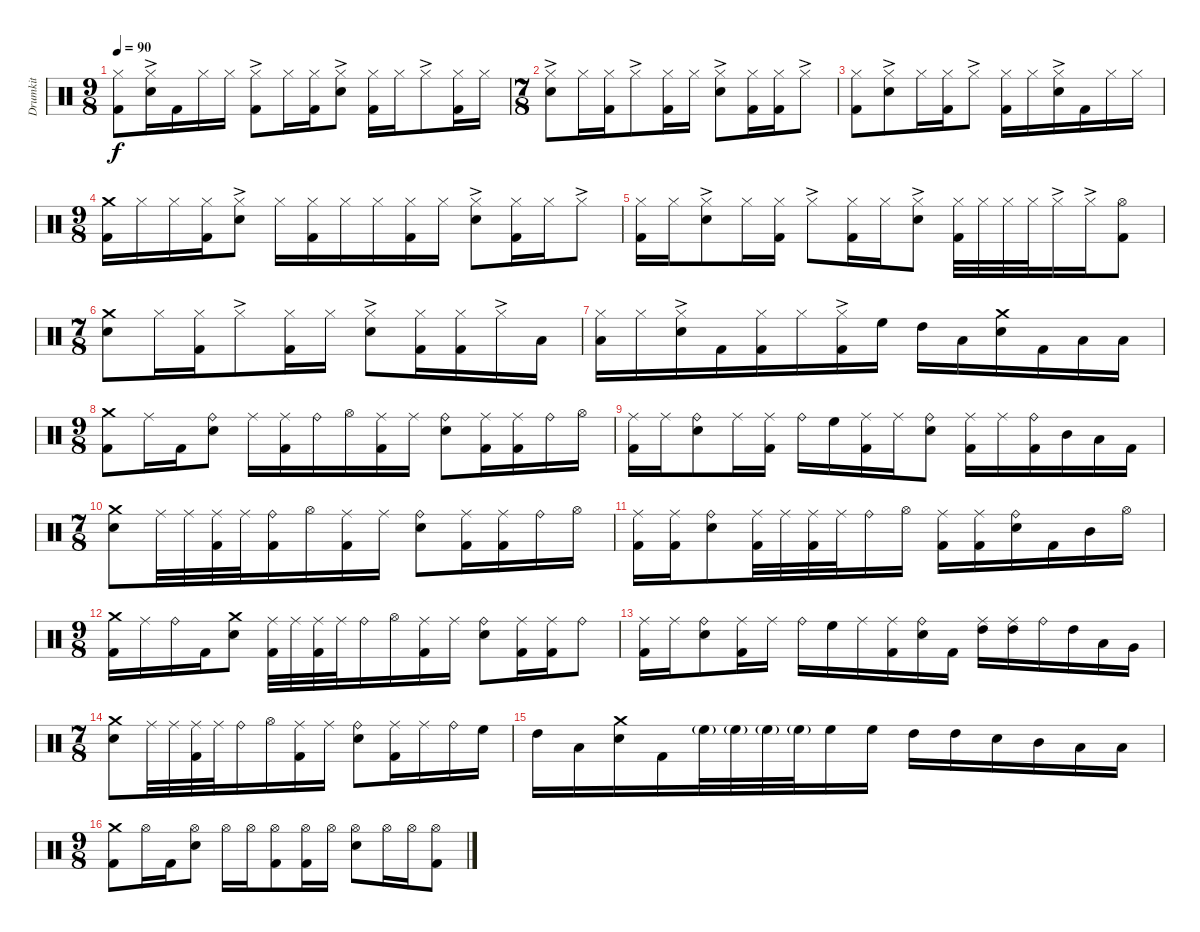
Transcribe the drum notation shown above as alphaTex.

\track ("Drumkit" "Drumkit") {instrument percussion}
\staff {score}
\articulation defaults
\ts (9 8)
\tempo 90
\clef neutral
\ks c
("Hi-Hat (closed)" "Kick (hit) 2").8{dy f} ("Hi-Hat (closed)"{ac} "Snare (hit) 2").16 "Kick (hit) 2".16 "Hi-Hat (closed)".16 "Hi-Hat (closed)".16 ("Hi-Hat (closed)"{ac} "Kick (hit) 2").8 "Hi-Hat (closed)".16 ("Hi-Hat (closed)" "Kick (hit) 2").16 ("Hi-Hat (closed)"{ac} "Snare (hit) 2").8 ("Hi-Hat (closed)" "Kick (hit) 2").16 "Hi-Hat (closed)".16 "Hi-Hat (closed)"{ac}.8 ("Hi-Hat (closed)" "Kick (hit) 2").16 "Hi-Hat (closed)".16 |
\ts (7 8)
("Hi-Hat (closed)"{ac} "Snare (hit) 2").8 "Hi-Hat (closed)".16 ("Hi-Hat (closed)" "Kick (hit) 2").16 "Hi-Hat (closed)"{ac}.8 ("Hi-Hat (closed)" "Kick (hit) 2").16 "Hi-Hat (closed)".16 ("Hi-Hat (closed)"{ac} "Snare (hit) 2").8 ("Hi-Hat (closed)" "Kick (hit) 2").16 ("Hi-Hat (closed)" "Kick (hit) 2").16 "Hi-Hat (closed)"{ac}.8 |
("Hi-Hat (closed)" "Kick (hit) 2").8 ("Hi-Hat (closed)"{ac} "Snare (hit) 2").8 "Hi-Hat (closed)".16 ("Hi-Hat (closed)" "Kick (hit) 2").16 "Hi-Hat (closed)"{ac}.8 ("Hi-Hat (closed)" "Kick (hit) 2").16 "Hi-Hat (closed)".16 ("Hi-Hat (closed)"{ac} "Snare (hit) 2").16 "Kick (hit) 2".16 "Hi-Hat (closed)".16 "Hi-Hat (closed)".16 |
\ts (9 8)
("Crash medium (hit)" "Kick (hit) 2").16 "Hi-Hat (closed)".16 "Hi-Hat (closed)".16 ("Hi-Hat (closed)" "Kick (hit) 2").16 ("Hi-Hat (closed)"{ac} "Snare (hit) 2").8 "Hi-Hat (closed)".16 ("Hi-Hat (closed)" "Kick (hit) 2").16 "Hi-Hat (closed)".16 "Hi-Hat (closed)".16 ("Hi-Hat (closed)" "Kick (hit) 2").16 "Hi-Hat (closed)".16 ("Hi-Hat (closed)"{ac} "Snare (hit) 2").8 ("Hi-Hat (closed)" "Kick (hit) 2").16 "Hi-Hat (closed)".16 "Hi-Hat (closed)"{ac}.8 |
("Hi-Hat (closed)" "Kick (hit) 2").16 "Hi-Hat (closed)".16 ("Hi-Hat (closed)"{ac} "Snare (hit) 2").8 "Hi-Hat (closed)".16 ("Hi-Hat (closed)" "Kick (hit) 2").16 "Hi-Hat (closed)"{ac}.8 ("Hi-Hat (closed)" "Kick (hit) 2").16 "Hi-Hat (closed)".16 ("Hi-Hat (closed)"{ac} "Snare (hit) 2").8 ("Hi-Hat (closed)" "Kick (hit) 2").32 "Hi-Hat (closed)".32 "Hi-Hat (closed)".32 "Hi-Hat (closed)".32 "Hi-Hat (closed)"{ac}.16 "Hi-Hat (closed)"{ac}.16 ("Hi-Hat (open)" "Kick (hit) 2").8 |
\ts (7 8)
("Crash medium (hit)" "Snare (hit) 2").8 "Hi-Hat (closed)".16 ("Hi-Hat (closed)" "Kick (hit) 2").16 "Hi-Hat (closed)"{ac}.8 ("Hi-Hat (closed)" "Kick (hit) 2").16 "Hi-Hat (closed)".16 ("Hi-Hat (closed)"{ac} "Snare (hit) 2").8 ("Hi-Hat (closed)" "Kick (hit) 2").16 ("Hi-Hat (closed)" "Kick (hit) 2").16 "Hi-Hat (closed)"{ac}.16 "Low Tom (hit)".16 |
("Hi-Hat (closed)" "Low Tom (hit)").16 "Hi-Hat (closed)".16 ("Hi-Hat (closed)"{ac} "Snare (hit) 2").16 "Kick (hit) 2".16 ("Hi-Hat (closed)" "Kick (hit) 2").16 "Hi-Hat (closed)".16 ("Hi-Hat (closed)"{ac} "Kick (hit) 2").16 "High Floor Tom (hit)".16 "High Tom (hit)".16 "Low Tom (hit)".16 ("Crash medium (hit)" "Snare (hit) 2").16 "Kick (hit) 2".16 "Low Tom (hit)".16 "Low Tom (hit)".16 |
\ts (9 8)
("Crash medium (hit)" "Kick (hit) 2").8 "Ride (middle)".16 "Kick (hit) 2".16 ("Ride (bell)" "Snare (hit) 2").8 "Ride (middle)".16 ("Ride (middle)" "Kick (hit) 2").16 "Ride (bell)".16 "Hi-Hat (open)".16 ("Ride (middle)" "Kick (hit) 2").16 "Ride (middle)".16 ("Ride (bell)" "Snare (hit) 2").8 ("Ride (middle)" "Kick (hit) 2").16 ("Ride (middle)" "Kick (hit) 2").16 "Ride (bell)".16 "Hi-Hat (open)".16 |
("Ride (middle)" "Kick (hit) 2").16 "Ride (middle)".16 ("Ride (bell)" "Snare (hit) 2").8 "Ride (middle)".16 ("Ride (middle)" "Kick (hit) 2").16 "Ride (bell)".16 "High Floor Tom (hit)".16 ("Ride (middle)" "Kick (hit) 2").16 "Ride (middle)".16 ("Ride (bell)" "Snare (hit) 2").8 ("Ride (middle)" "Kick (hit) 2").16 "Ride (middle)".16 ("Ride (bell)" "Kick (hit) 2").16 "Mid Tom (hit)".16 "Low Tom (hit)".16 "Kick (hit) 2".16 |
\ts (7 8)
("Crash medium (hit)" "Snare (hit) 2").8 "Ride (middle)".32 "Ride (middle)".32 ("Ride (middle)" "Kick (hit) 2").32 "Ride (middle)".32 ("Ride (bell)" "Kick (hit) 2").16 "Hi-Hat (open)".16 ("Ride (middle)" "Kick (hit) 2").16 "Ride (middle)".16 ("Ride (bell)" "Snare (hit) 2").8 ("Ride (middle)" "Kick (hit) 2").16 ("Ride (middle)" "Kick (hit) 2").16 "Ride (bell)".16 "Hi-Hat (open)".16 |
("Ride (middle)" "Kick (hit) 2").16 ("Ride (middle)" "Kick (hit) 2").16 ("Ride (bell)" "Snare (hit) 2").8 ("Ride (middle)" "Kick (hit) 2").32 "Ride (middle)".32 ("Ride (middle)" "Kick (hit) 2").32 "Ride (middle)".32 "Ride (bell)".16 "Hi-Hat (open)".16 ("Ride (middle)" "Kick (hit) 2").16 ("Ride (middle)" "Kick (hit) 2").16 ("Ride (bell)" "Snare (hit) 2").16 "Kick (hit) 2".16 "Mid Tom (hit)".16 "Hi-Hat (open)".16 |
\ts (9 8)
("Crash medium (hit)" "Kick (hit) 2").16 "Ride (middle)".16 "Ride (bell)".16 "Kick (hit) 2".16 ("Crash medium (hit)" "Snare (hit) 2").8 ("Ride (middle)" "Kick (hit) 2").32 "Ride (middle)".32 ("Ride (middle)" "Kick (hit) 2").32 "Ride (middle)".32 "Ride (bell)".16 "Hi-Hat (open)".16 ("Ride (middle)" "Kick (hit) 2").16 "Ride (middle)".16 ("Ride (bell)" "Snare (hit) 2").8 ("Ride (middle)" "Kick (hit) 2").16 ("Ride (middle)" "Kick (hit) 2").16 "Ride (bell)".8 |
("Ride (middle)" "Kick (hit) 2").16 "Ride (middle)".16 ("Ride (bell)" "Snare (hit) 2").8 ("Ride (middle)" "Kick (hit) 2").16 "Ride (middle)".16 "Ride (bell)".16 "High Floor Tom (hit)".16 "Ride (middle)".16 ("Ride (middle)" "Kick (hit) 2").16 ("Ride (bell)" "Snare (hit) 2").16 "Kick (hit) 2".16 ("Ride (middle)" "High Tom (hit)").16 ("Ride (middle)" "High Tom (hit)").16 "Ride (bell)".16 "High Tom (hit)".16 "Low Tom (hit)".16 "Very Low Tom (hit)".16 |
\ts (7 8)
("Crash medium (hit)" "Snare (hit) 2").8 "Ride (middle)".32 "Ride (middle)".32 ("Ride (middle)" "Kick (hit) 2").32 "Ride (middle)".32 "Ride (bell)".16 "Hi-Hat (open)".16 ("Ride (middle)" "Kick (hit) 2").16 "Ride (middle)".16 ("Ride (bell)" "Snare (hit) 2").8 ("Ride (middle)" "Kick (hit) 2").16 "Ride (middle)".16 "Ride (bell)".16 "High Floor Tom (hit)".16 |
"High Tom (hit)".16 "Low Tom (hit)".16 ("Crash medium (hit)" "Snare (hit) 2").16 "Kick (hit) 2".16 "High Floor Tom (hit)"{g}.32 "High Floor Tom (hit)"{g}.32 "High Floor Tom (hit)"{g}.32 "High Floor Tom (hit)"{g}.32 "High Floor Tom (hit)".16 "High Floor Tom (hit)".16 "High Tom (hit)".16 "High Tom (hit)".16 "Snare (hit) 2".16 "Mid Tom (hit)".16 "Low Tom (hit)".16 "Low Tom (hit)".16 |
\ts (9 8)
("Crash medium (hit)" "Kick (hit) 2").8 "Hi-Hat (open)".16 "Kick (hit) 2".16 ("Hi-Hat (open)" "Snare (hit) 2").8 "Hi-Hat (open)".16 "Hi-Hat (open)".16 ("Hi-Hat (open)" "Kick (hit) 2").8 ("Hi-Hat (open)" "Kick (hit) 2").16 "Hi-Hat (open)".16 ("Hi-Hat (open)" "Snare (hit) 2").8 "Hi-Hat (open)".16 "Hi-Hat (open)".16 ("Hi-Hat (open)" "Kick (hit) 2").8
